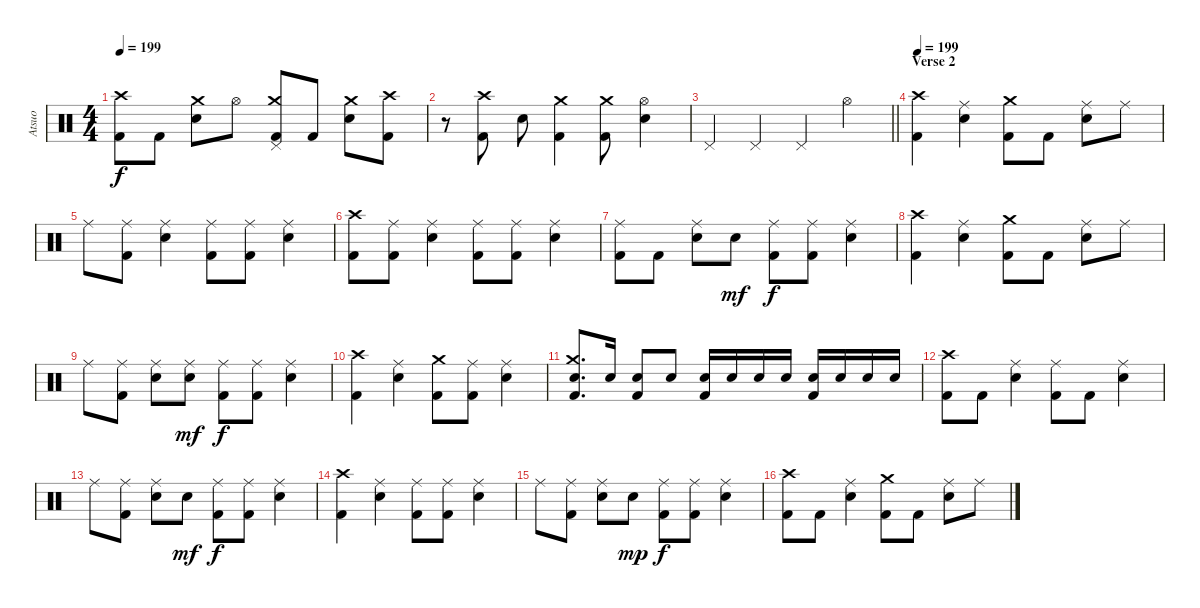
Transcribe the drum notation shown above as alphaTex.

\track ("Atsuo" "Atsuo") {instrument percussion}
\staff {score}
\articulation defaults
\ts (4 4)
\tempo 199
\clef neutral
\ks c
("Crash high (hit)" "Kick (hit) 2").8{dy f} "Kick (hit) 2".8 ("Crash medium (hit)" "Electric Snare (hit)").8 "Hi-Hat (open)".8 ("Pedal Hi-Hat (hit)" "Crash medium (hit)" "Kick (hit) 2").8 "Kick (hit) 2".8 ("Crash medium (hit)" "Electric Snare (hit)").8 ("Crash high (hit)" "Kick (hit) 2").8 |
r.8 ("Crash high (hit)" "Kick (hit) 2").8 "Electric Snare (hit)".8 ("Crash medium (hit)" "Kick (hit) 2").4 ("Crash medium (hit)" "Kick (hit) 2").8 ("Hi-Hat (open)" "Electric Snare (hit)").4 |
\barLineRight lightlight "Pedal Hi-Hat (hit)".4 "Pedal Hi-Hat (hit)".4 "Pedal Hi-Hat (hit)".4 "Hi-Hat (open)".4
|
\section ("" "Verse 2")
\tempo 199
("Crash high (hit)" "Kick (hit) 2").4 ("Ride (middle)" "Electric Snare (hit)").4 ("Crash medium (hit)" "Kick (hit) 2").8 "Kick (hit) 2".8 ("Ride (middle)" "Electric Snare (hit)").8 "Ride (middle)".8 |
"Ride (middle)".8 ("Ride (middle)" "Kick (hit) 2").8 ("Ride (middle)" "Electric Snare (hit)").4 ("Ride (middle)" "Kick (hit) 2").8 ("Ride (middle)" "Kick (hit) 2").8 ("Ride (middle)" "Electric Snare (hit)").4 |
("Crash high (hit)" "Kick (hit) 2").8 ("Ride (middle)" "Kick (hit) 2").8 ("Ride (middle)" "Electric Snare (hit)").4 ("Ride (middle)" "Kick (hit) 2").8 ("Ride (middle)" "Kick (hit) 2").8 ("Ride (middle)" "Electric Snare (hit)").4 |
("Ride (middle)" "Kick (hit) 2").8 "Kick (hit) 2".8 ("Ride (middle)" "Electric Snare (hit)").8 "Electric Snare (hit)".8{dy mf} ("Ride (middle)" "Kick (hit) 2").8{dy f} ("Ride (middle)" "Kick (hit) 2").8 ("Ride (middle)" "Electric Snare (hit)").4 |
("Crash high (hit)" "Kick (hit) 2").4 ("Ride (middle)" "Electric Snare (hit)").4 ("Crash medium (hit)" "Kick (hit) 2").8 "Kick (hit) 2".8 ("Ride (middle)" "Electric Snare (hit)").8 "Ride (middle)".8 |
"Ride (middle)".8 ("Ride (middle)" "Kick (hit) 2").8 ("Ride (middle)" "Electric Snare (hit)").8 ("Ride (middle)" "Electric Snare (hit)").8{dy mf} ("Ride (middle)" "Kick (hit) 2").8{dy f} ("Ride (middle)" "Kick (hit) 2").8 ("Ride (middle)" "Electric Snare (hit)").4 |
("Crash high (hit)" "Kick (hit) 2").4 ("Ride (middle)" "Electric Snare (hit)").4 ("Crash medium (hit)" "Kick (hit) 2").8 ("Ride (middle)" "Kick (hit) 2").8 ("Ride (middle)" "Electric Snare (hit)").4 |
("Crash medium (hit)" "Electric Snare (hit)" "Kick (hit) 2").8{d} "Electric Snare (hit)".16 ("Electric Snare (hit)" "Kick (hit) 2").8 "Electric Snare (hit)".8 ("Electric Snare (hit)" "Kick (hit) 2").16 "Electric Snare (hit)".16 "Electric Snare (hit)".16 "Electric Snare (hit)".16 ("Electric Snare (hit)" "Kick (hit) 2").16 "Electric Snare (hit)".16 "Electric Snare (hit)".16 "Electric Snare (hit)".16 |
("Crash high (hit)" "Kick (hit) 2").8 "Kick (hit) 2".8 ("Ride (middle)" "Electric Snare (hit)").4 ("Ride (middle)" "Kick (hit) 2").8 "Kick (hit) 2".8 ("Ride (middle)" "Electric Snare (hit)").4 |
"Ride (middle)".8 ("Ride (middle)" "Kick (hit) 2").8 ("Ride (middle)" "Electric Snare (hit)").8 "Electric Snare (hit)".8{dy mf} ("Ride (middle)" "Kick (hit) 2").8{dy f} ("Ride (middle)" "Kick (hit) 2").8 ("Ride (middle)" "Electric Snare (hit)").4 |
("Crash high (hit)" "Kick (hit) 2").4 ("Ride (middle)" "Electric Snare (hit)").4 ("Ride (middle)" "Kick (hit) 2").8 ("Ride (middle)" "Kick (hit) 2").8 ("Ride (middle)" "Electric Snare (hit)").4 |
"Ride (middle)".8 ("Ride (middle)" "Kick (hit) 2").8 ("Ride (middle)" "Electric Snare (hit)").8 "Electric Snare (hit)".8{dy mp} ("Ride (middle)" "Kick (hit) 2").8{dy f} ("Ride (middle)" "Kick (hit) 2").8 ("Ride (middle)" "Electric Snare (hit)").4 |
("Crash high (hit)" "Kick (hit) 2").8 "Kick (hit) 2".8 ("Ride (middle)" "Electric Snare (hit)").4 ("Crash medium (hit)" "Kick (hit) 2").8 "Kick (hit) 2".8 ("Ride (middle)" "Electric Snare (hit)").8 "Ride (middle)".8
